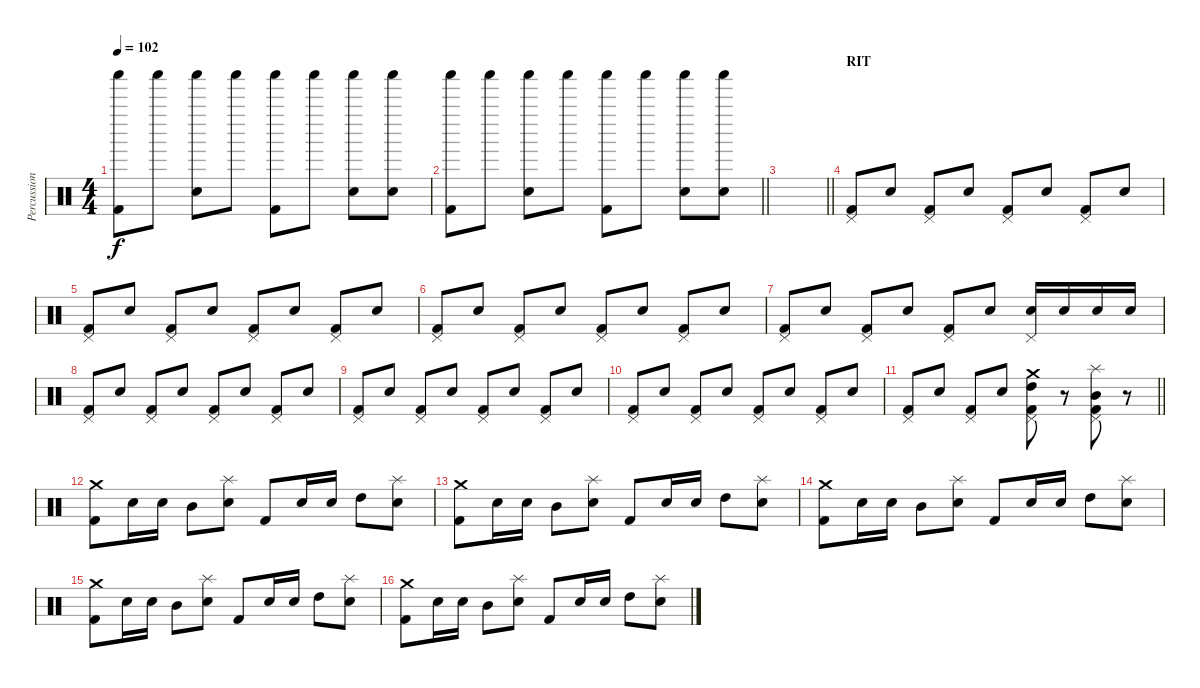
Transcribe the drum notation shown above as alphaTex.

\track ("Percussioni" "Percussion") {instrument percussion}
\staff {score}
\articulation defaults
\ts (4 4)
\tempo 102
\clef neutral
\ks c
("Kick (hit) 2" "Shaker (hit)").8{dy f} "Shaker (hit)".8 ("Snare (hit) 2" "Shaker (hit)").8 "Shaker (hit)".8 ("Kick (hit) 2" "Shaker (hit)").8 "Shaker (hit)".8 ("Snare (hit) 2" "Shaker (hit)").8 ("Snare (hit) 2" "Shaker (hit)").8 |
\barLineRight lightlight
("Kick (hit) 2" "Shaker (hit)").8 "Shaker (hit)".8 ("Snare (hit) 2" "Shaker (hit)").8 "Shaker (hit)".8 ("Kick (hit) 2" "Shaker (hit)").8 "Shaker (hit)".8 ("Snare (hit) 2" "Shaker (hit)").8 ("Snare (hit) 2" "Shaker (hit)").8 |
\barLineRight lightlight
|
\section ("" "RIT")
("Pedal Hi-Hat (hit)" "Kick (hit) 2").8 "Snare (hit) 2".8 ("Pedal Hi-Hat (hit)" "Kick (hit) 2").8 "Snare (hit) 2".8 ("Pedal Hi-Hat (hit)" "Kick (hit) 2").8 "Snare (hit) 2".8 ("Pedal Hi-Hat (hit)" "Kick (hit) 2").8 "Snare (hit) 2".8 |
("Pedal Hi-Hat (hit)" "Kick (hit) 2").8 "Snare (hit) 2".8 ("Pedal Hi-Hat (hit)" "Kick (hit) 2").8 "Snare (hit) 2".8 ("Pedal Hi-Hat (hit)" "Kick (hit) 2").8 "Snare (hit) 2".8 ("Pedal Hi-Hat (hit)" "Kick (hit) 2").8 "Snare (hit) 2".8 |
("Pedal Hi-Hat (hit)" "Kick (hit) 2").8 "Snare (hit) 2".8 ("Pedal Hi-Hat (hit)" "Kick (hit) 2").8 "Snare (hit) 2".8 ("Pedal Hi-Hat (hit)" "Kick (hit) 2").8 "Snare (hit) 2".8 ("Pedal Hi-Hat (hit)" "Kick (hit) 2").8 "Snare (hit) 2".8 |
("Pedal Hi-Hat (hit)" "Kick (hit) 2").8 "Snare (hit) 2".8 ("Pedal Hi-Hat (hit)" "Kick (hit) 2").8 "Snare (hit) 2".8 ("Pedal Hi-Hat (hit)" "Kick (hit) 2").8 "Snare (hit) 2".8 ("Pedal Hi-Hat (hit)" "Snare (hit) 2").16 "Snare (hit) 2".16 "Snare (hit) 2".16 "Snare (hit) 2".16 |
("Pedal Hi-Hat (hit)" "Kick (hit) 2").8 "Snare (hit) 2".8 ("Pedal Hi-Hat (hit)" "Kick (hit) 2").8 "Snare (hit) 2".8 ("Pedal Hi-Hat (hit)" "Kick (hit) 2").8 "Snare (hit) 2".8 ("Pedal Hi-Hat (hit)" "Kick (hit) 2").8 "Snare (hit) 2".8 |
("Pedal Hi-Hat (hit)" "Kick (hit) 2").8 "Snare (hit) 2".8 ("Pedal Hi-Hat (hit)" "Kick (hit) 2").8 "Snare (hit) 2".8 ("Pedal Hi-Hat (hit)" "Kick (hit) 2").8 "Snare (hit) 2".8 ("Pedal Hi-Hat (hit)" "Kick (hit) 2").8 "Snare (hit) 2".8 |
("Pedal Hi-Hat (hit)" "Kick (hit) 2").8 "Snare (hit) 2".8 ("Pedal Hi-Hat (hit)" "Kick (hit) 2").8 "Snare (hit) 2".8 ("Pedal Hi-Hat (hit)" "Kick (hit) 2").8 "Snare (hit) 2".8 ("Pedal Hi-Hat (hit)" "Kick (hit) 2").8 "Snare (hit) 2".8 |
\barLineRight lightlight
("Pedal Hi-Hat (hit)" "Kick (hit) 2").8 "Snare (hit) 2".8 ("Pedal Hi-Hat (hit)" "Kick (hit) 2").8 "Snare (hit) 2".8 ("High Tom (hit)" "Crash medium (hit)" "Pedal Hi-Hat (hit)" "Kick (hit) 2").8 r.8 ("Mid Tom (hit)" "Splash (hit)" "Pedal Hi-Hat (hit)" "Kick (hit) 2").8 r.8 |
("Crash medium (hit)" "Kick (hit) 2").8 "Snare (hit) 2".16 "Snare (hit) 2".16 "Mid Tom (hit)".8 ("Splash (hit)" "Snare (hit) 2").8 "Kick (hit) 2".8 "Snare (hit) 2".16 "Snare (hit) 2".16 "High Tom (hit)".8 ("Splash (hit)" "Snare (hit) 2").8 |
("Crash medium (hit)" "Kick (hit) 2").8 "Snare (hit) 2".16 "Snare (hit) 2".16 "Mid Tom (hit)".8 ("Splash (hit)" "Snare (hit) 2").8 "Kick (hit) 2".8 "Snare (hit) 2".16 "Snare (hit) 2".16 "High Tom (hit)".8 ("Splash (hit)" "Snare (hit) 2").8 |
("Crash medium (hit)" "Kick (hit) 2").8 "Snare (hit) 2".16 "Snare (hit) 2".16 "Mid Tom (hit)".8 ("Splash (hit)" "Snare (hit) 2").8 "Kick (hit) 2".8 "Snare (hit) 2".16 "Snare (hit) 2".16 "High Tom (hit)".8 ("Splash (hit)" "Snare (hit) 2").8 |
("Crash medium (hit)" "Kick (hit) 2").8 "Snare (hit) 2".16 "Snare (hit) 2".16 "Mid Tom (hit)".8 ("Splash (hit)" "Snare (hit) 2").8 "Kick (hit) 2".8 "Snare (hit) 2".16 "Snare (hit) 2".16 "High Tom (hit)".8 ("Splash (hit)" "Snare (hit) 2").8 |
("Crash medium (hit)" "Kick (hit) 2").8 "Snare (hit) 2".16 "Snare (hit) 2".16 "Mid Tom (hit)".8 ("Splash (hit)" "Snare (hit) 2").8 "Kick (hit) 2".8 "Snare (hit) 2".16 "Snare (hit) 2".16 "High Tom (hit)".8 ("Splash (hit)" "Snare (hit) 2").8
